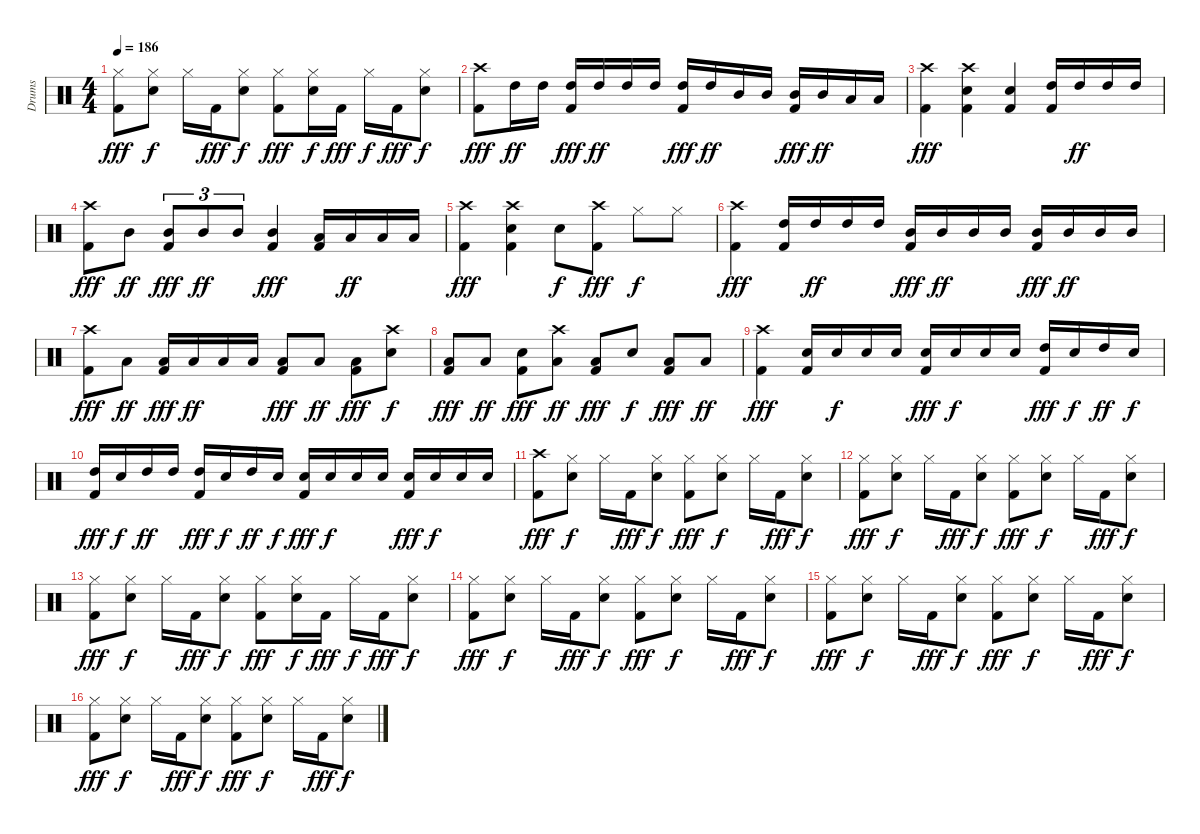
\track ("Drums" "Drums") {instrument percussion}
\staff {score}
\articulation defaults
\ts (4 4)
\tempo 186
\clef neutral
\ks c
("Hi-Hat (closed)" "Kick (hit) 2").8{dy fff} ("Hi-Hat (closed)" "Electric Snare (hit)").8{dy f} "Hi-Hat (closed)".16 "Kick (hit) 2".16{dy fff} ("Hi-Hat (closed)" "Electric Snare (hit)").8{dy f} ("Hi-Hat (closed)" "Kick (hit) 2").8{dy fff} ("Hi-Hat (closed)" "Electric Snare (hit)").16{dy f} "Kick (hit) 2".16{dy fff} "Hi-Hat (closed)".16{dy f} "Kick (hit) 2".16{dy fff} ("Hi-Hat (closed)" "Electric Snare (hit)").8{dy f} |
("Crash high (hit)" "Kick (hit) 2").8{dy fff} "High Tom (hit)".16{dy ff} "High Tom (hit)".16 ("High Tom (hit)" "Kick (hit) 2").16{dy fff} "High Tom (hit)".16{dy ff} "High Tom (hit)".16 "High Tom (hit)".16 ("High Tom (hit)" "Kick (hit) 2").16{dy fff} "High Tom (hit)".16{dy ff} "Mid Tom (hit)".16 "Mid Tom (hit)".16 ("Mid Tom (hit)" "Kick (hit) 2").16{dy fff} "Mid Tom (hit)".16{dy ff} "Low Tom (hit)".16 "Low Tom (hit)".16 |
("Crash high (hit)" "Kick (hit) 2").4{dy fff} ("Crash high (hit)" "Electric Snare (hit)" "Kick (hit) 2").4 ("Electric Snare (hit)" "Kick (hit) 2").4 ("High Tom (hit)" "Kick (hit) 2").16 "High Tom (hit)".16{dy ff} "High Tom (hit)".16 "High Tom (hit)".16 |
("Crash high (hit)" "Kick (hit) 2").8{dy fff} "Mid Tom (hit)".8{dy ff} ("Mid Tom (hit)" "Kick (hit) 2").8{tu (3 2) dy fff} "Mid Tom (hit)".8{tu (3 2) dy ff} "Mid Tom (hit)".8{tu (3 2)} ("Mid Tom (hit)" "Kick (hit) 2").4{dy fff} ("Low Tom (hit)" "Kick (hit) 2").16 "Low Tom (hit)".16{dy ff} "Low Tom (hit)".16 "Low Tom (hit)".16 |
("Crash high (hit)" "Kick (hit) 2").4{dy fff} ("Crash high (hit)" "Electric Snare (hit)" "Kick (hit) 2").4 "Electric Snare (hit)".8{dy f} ("Crash high (hit)" "Kick (hit) 2").8{dy fff} "Hi-Hat (closed)".8{dy f} "Hi-Hat (closed)".8 |
("Crash high (hit)" "Kick (hit) 2").4{dy fff} ("High Tom (hit)" "Kick (hit) 2").16 "High Tom (hit)".16{dy ff} "High Tom (hit)".16 "High Tom (hit)".16 ("Mid Tom (hit)" "Kick (hit) 2").16{dy fff} "Mid Tom (hit)".16{dy ff} "Mid Tom (hit)".16 "Mid Tom (hit)".16 ("Mid Tom (hit)" "Kick (hit) 2").16{dy fff} "Mid Tom (hit)".16{dy ff} "Mid Tom (hit)".16 "Mid Tom (hit)".16 |
("Crash high (hit)" "Kick (hit) 2").8{dy fff} "Low Tom (hit)".8{dy ff} ("Low Tom (hit)" "Kick (hit) 2").16{dy fff} "Low Tom (hit)".16{dy ff} "Low Tom (hit)".16 "Low Tom (hit)".16 ("Low Tom (hit)" "Kick (hit) 2").8{dy fff} "Low Tom (hit)".8{dy ff} ("Low Tom (hit)" "Kick (hit) 2").8{dy fff} ("Crash high (hit)" "Electric Snare (hit)").8{dy f} |
("Low Tom (hit)" "Kick (hit) 2").8{dy fff} "Low Tom (hit)".8{dy ff} ("Electric Snare (hit)" "Kick (hit) 2").8{dy fff} ("Crash high (hit)" "Low Tom (hit)").8{dy ff} ("Low Tom (hit)" "Kick (hit) 2").8{dy fff} "Electric Snare (hit)".8{dy f} ("Low Tom (hit)" "Kick (hit) 2").8{dy fff} "Low Tom (hit)".8{dy ff} |
("Crash high (hit)" "Kick (hit) 2").4{dy fff} ("Electric Snare (hit)" "Kick (hit) 2").16 "Electric Snare (hit)".16{dy f} "Electric Snare (hit)".16 "Electric Snare (hit)".16 ("Electric Snare (hit)" "Kick (hit) 2").16{dy fff} "Electric Snare (hit)".16{dy f} "Electric Snare (hit)".16 "Electric Snare (hit)".16 ("High Tom (hit)" "Kick (hit) 2").16{dy fff} "Electric Snare (hit)".16{dy f} "High Tom (hit)".16{dy ff} "Electric Snare (hit)".16{dy f} |
("High Tom (hit)" "Kick (hit) 2").16{dy fff} "Electric Snare (hit)".16{dy f} "High Tom (hit)".16{dy ff} "High Tom (hit)".16 ("High Tom (hit)" "Kick (hit) 2").16{dy fff} "Electric Snare (hit)".16{dy f} "High Tom (hit)".16{dy ff} "Electric Snare (hit)".16{dy f} ("Electric Snare (hit)" "Kick (hit) 2").16{dy fff} "Electric Snare (hit)".16{dy f} "Electric Snare (hit)".16 "Electric Snare (hit)".16 ("Electric Snare (hit)" "Kick (hit) 2").16{dy fff} "Electric Snare (hit)".16{dy f} "Electric Snare (hit)".16 "Electric Snare (hit)".16 |
("Crash high (hit)" "Kick (hit) 2").8{dy fff} ("Hi-Hat (closed)" "Electric Snare (hit)").8{dy f} "Hi-Hat (closed)".16 "Kick (hit) 2".16{dy fff} ("Hi-Hat (closed)" "Electric Snare (hit)").8{dy f} ("Hi-Hat (closed)" "Kick (hit) 2").8{dy fff} ("Hi-Hat (closed)" "Electric Snare (hit)").8{dy f} "Hi-Hat (closed)".16 "Kick (hit) 2".16{dy fff} ("Hi-Hat (closed)" "Electric Snare (hit)").8{dy f} |
("Hi-Hat (closed)" "Kick (hit) 2").8{dy fff} ("Hi-Hat (closed)" "Electric Snare (hit)").8{dy f} "Hi-Hat (closed)".16 "Kick (hit) 2".16{dy fff} ("Hi-Hat (closed)" "Electric Snare (hit)").8{dy f} ("Hi-Hat (closed)" "Kick (hit) 2").8{dy fff} ("Hi-Hat (closed)" "Electric Snare (hit)").8{dy f} "Hi-Hat (closed)".16 "Kick (hit) 2".16{dy fff} ("Hi-Hat (closed)" "Electric Snare (hit)").8{dy f} |
("Hi-Hat (closed)" "Kick (hit) 2").8{dy fff} ("Hi-Hat (closed)" "Electric Snare (hit)").8{dy f} "Hi-Hat (closed)".16 "Kick (hit) 2".16{dy fff} ("Hi-Hat (closed)" "Electric Snare (hit)").8{dy f} ("Hi-Hat (closed)" "Kick (hit) 2").8{dy fff} ("Hi-Hat (closed)" "Electric Snare (hit)").16{dy f} "Kick (hit) 2".16{dy fff} "Hi-Hat (closed)".16{dy f} "Kick (hit) 2".16{dy fff} ("Hi-Hat (closed)" "Electric Snare (hit)").8{dy f} |
("Hi-Hat (closed)" "Kick (hit) 2").8{dy fff} ("Hi-Hat (closed)" "Electric Snare (hit)").8{dy f} "Hi-Hat (closed)".16 "Kick (hit) 2".16{dy fff} ("Hi-Hat (closed)" "Electric Snare (hit)").8{dy f} ("Hi-Hat (closed)" "Kick (hit) 2").8{dy fff} ("Hi-Hat (closed)" "Electric Snare (hit)").8{dy f} "Hi-Hat (closed)".16 "Kick (hit) 2".16{dy fff} ("Hi-Hat (closed)" "Electric Snare (hit)").8{dy f} |
("Hi-Hat (closed)" "Kick (hit) 2").8{dy fff} ("Hi-Hat (closed)" "Electric Snare (hit)").8{dy f} "Hi-Hat (closed)".16 "Kick (hit) 2".16{dy fff} ("Hi-Hat (closed)" "Electric Snare (hit)").8{dy f} ("Hi-Hat (closed)" "Kick (hit) 2").8{dy fff} ("Hi-Hat (closed)" "Electric Snare (hit)").8{dy f} "Hi-Hat (closed)".16 "Kick (hit) 2".16{dy fff} ("Hi-Hat (closed)" "Electric Snare (hit)").8{dy f} |
("Hi-Hat (closed)" "Kick (hit) 2").8{dy fff} ("Hi-Hat (closed)" "Electric Snare (hit)").8{dy f} "Hi-Hat (closed)".16 "Kick (hit) 2".16{dy fff} ("Hi-Hat (closed)" "Electric Snare (hit)").8{dy f} ("Hi-Hat (closed)" "Kick (hit) 2").8{dy fff} ("Hi-Hat (closed)" "Electric Snare (hit)").8{dy f} "Hi-Hat (closed)".16 "Kick (hit) 2".16{dy fff} ("Hi-Hat (closed)" "Electric Snare (hit)").8{dy f}
